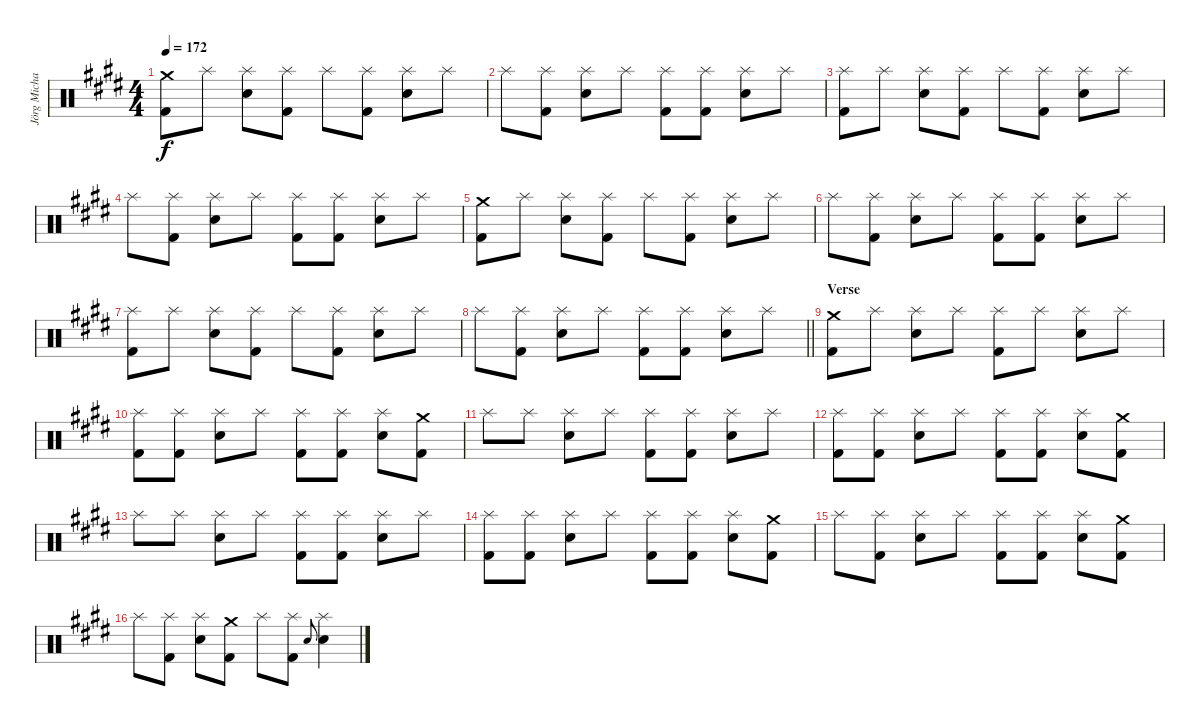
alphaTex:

\track ("Jörg Michael" "Jörg Micha") {instrument percussion}
\staff {score}
\articulation defaults
\ts (4 4)
\tempo 172
\clef neutral
\ks c#minor
("Crash medium (hit)" "Kick (hit) 2").8{dy f} "Splash (hit)".8 ("Splash (hit)" "Snare (hit) 2").8 ("Splash (hit)" "Kick (hit) 2").8 "Splash (hit)".8 ("Splash (hit)" "Kick (hit) 2").8 ("Splash (hit)" "Snare (hit) 2").8 "Splash (hit)".8 |
"Splash (hit)".8 ("Splash (hit)" "Kick (hit) 2").8 ("Splash (hit)" "Snare (hit) 2").8 "Splash (hit)".8 ("Splash (hit)" "Kick (hit) 2").8 ("Splash (hit)" "Kick (hit) 2").8 ("Splash (hit)" "Snare (hit) 2").8 "Splash (hit)".8 |
("Splash (hit)" "Kick (hit) 2").8 "Splash (hit)".8 ("Splash (hit)" "Snare (hit) 2").8 ("Splash (hit)" "Kick (hit) 2").8 "Splash (hit)".8 ("Splash (hit)" "Kick (hit) 2").8 ("Splash (hit)" "Snare (hit) 2").8 "Splash (hit)".8 |
"Splash (hit)".8 ("Splash (hit)" "Kick (hit) 2").8 ("Splash (hit)" "Snare (hit) 2").8 "Splash (hit)".8 ("Splash (hit)" "Kick (hit) 2").8 ("Splash (hit)" "Kick (hit) 2").8 ("Splash (hit)" "Snare (hit) 2").8 "Splash (hit)".8 |
("Crash medium (hit)" "Kick (hit) 2").8 "Splash (hit)".8 ("Splash (hit)" "Snare (hit) 2").8 ("Splash (hit)" "Kick (hit) 2").8 "Splash (hit)".8 ("Splash (hit)" "Kick (hit) 2").8 ("Splash (hit)" "Snare (hit) 2").8 "Splash (hit)".8 |
"Splash (hit)".8 ("Splash (hit)" "Kick (hit) 2").8 ("Splash (hit)" "Snare (hit) 2").8 "Splash (hit)".8 ("Splash (hit)" "Kick (hit) 2").8 ("Splash (hit)" "Kick (hit) 2").8 ("Splash (hit)" "Snare (hit) 2").8 "Splash (hit)".8 |
("Splash (hit)" "Kick (hit) 2").8 "Splash (hit)".8 ("Splash (hit)" "Snare (hit) 2").8 ("Splash (hit)" "Kick (hit) 2").8 "Splash (hit)".8 ("Splash (hit)" "Kick (hit) 2").8 ("Splash (hit)" "Snare (hit) 2").8 "Splash (hit)".8 |
\barLineRight lightlight "Splash (hit)".8
("Splash (hit)" "Kick (hit) 2").8 ("Splash (hit)" "Snare (hit) 2").8 "Splash (hit)".8 ("Splash (hit)" "Kick (hit) 2").8 ("Splash (hit)" "Kick (hit) 2").8 ("Splash (hit)" "Snare (hit) 2").8 "Splash (hit)".8 |
\section ("" "Verse")
("Crash medium (hit)" "Kick (hit) 2").8 "Splash (hit)".8 ("Splash (hit)" "Snare (hit) 2").8 "Splash (hit)".8 ("Splash (hit)" "Kick (hit) 2").8 "Splash (hit)".8 ("Splash (hit)" "Snare (hit) 2").8 "Splash (hit)".8 |
("Splash (hit)" "Kick (hit) 2").8 ("Splash (hit)" "Kick (hit) 2").8 ("Splash (hit)" "Snare (hit) 2").8 "Splash (hit)".8 ("Splash (hit)" "Kick (hit) 2").8 ("Splash (hit)" "Kick (hit) 2").8 ("Splash (hit)" "Snare (hit) 2").8 ("Crash medium (hit)" "Kick (hit) 2").8 |
"Splash (hit)".8 "Splash (hit)".8 ("Splash (hit)" "Snare (hit) 2").8 "Splash (hit)".8 ("Splash (hit)" "Kick (hit) 2").8 ("Splash (hit)" "Kick (hit) 2").8 ("Splash (hit)" "Snare (hit) 2").8 "Splash (hit)".8 |
("Splash (hit)" "Kick (hit) 2").8 ("Splash (hit)" "Kick (hit) 2").8 ("Splash (hit)" "Snare (hit) 2").8 "Splash (hit)".8 ("Splash (hit)" "Kick (hit) 2").8 ("Splash (hit)" "Kick (hit) 2").8 ("Splash (hit)" "Snare (hit) 2").8 ("Crash medium (hit)" "Kick (hit) 2").8 |
"Splash (hit)".8 "Splash (hit)".8 ("Splash (hit)" "Snare (hit) 2").8 "Splash (hit)".8 ("Splash (hit)" "Kick (hit) 2").8 ("Splash (hit)" "Kick (hit) 2").8 ("Splash (hit)" "Snare (hit) 2").8 "Splash (hit)".8 |
("Splash (hit)" "Kick (hit) 2").8 ("Splash (hit)" "Kick (hit) 2").8 ("Splash (hit)" "Snare (hit) 2").8 "Splash (hit)".8 ("Splash (hit)" "Kick (hit) 2").8 ("Splash (hit)" "Kick (hit) 2").8 ("Splash (hit)" "Snare (hit) 2").8 ("Crash medium (hit)" "Kick (hit) 2").8 |
"Splash (hit)".8 ("Splash (hit)" "Kick (hit) 2").8 ("Splash (hit)" "Snare (hit) 2").8 "Splash (hit)".8 ("Splash (hit)" "Kick (hit) 2").8 ("Splash (hit)" "Kick (hit) 2").8 ("Splash (hit)" "Snare (hit) 2").8 ("Crash medium (hit)" "Kick (hit) 2").8 |
"Splash (hit)".8 ("Splash (hit)" "Kick (hit) 2").8 ("Splash (hit)" "Snare (hit) 2").8 ("Crash medium (hit)" "Kick (hit) 2").8 "Splash (hit)".8 ("Splash (hit)" "Kick (hit) 2").8 "Snare (hit) 2".8{gr onbeat} ("Splash (hit)" "Snare (hit) 2").4
